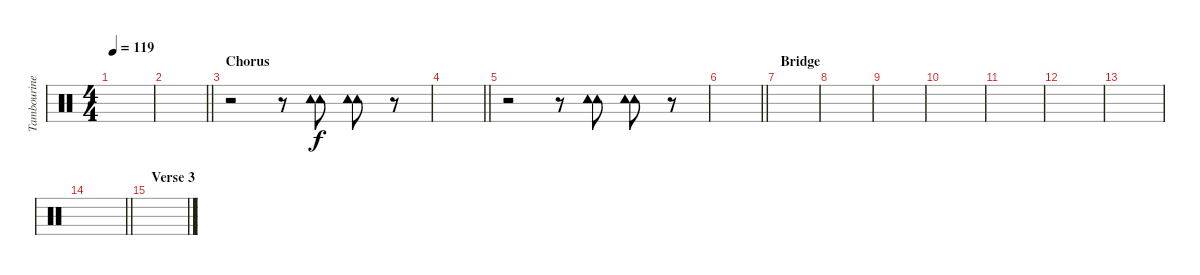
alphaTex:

\track ("Tambourine (John Lennon)" "Tambourine") {instrument percussion}
\staff {score}
\articulation defaults
\ts (4 4)
\tempo 119
\clef neutral
\ks c
|
\barLineRight lightlight
|
\section ("" "Chorus")
r.2 r.8 ("Tambourine (hit)" "Tambourine (hit)").8{bd 60} ("Tambourine (hit)" "Tambourine (hit)").8{bd 60} r.8 |
\barLineRight lightlight
|
r.2 r.8 ("Tambourine (hit)" "Tambourine (hit)").8{bd 60} ("Tambourine (hit)" "Tambourine (hit)").8{bd 60} r.8 |
\barLineRight lightlight
|
\section ("" "Bridge")
|
|
|
|
|
|
|
\barLineRight lightlight
|
\section ("" "Verse 3")
